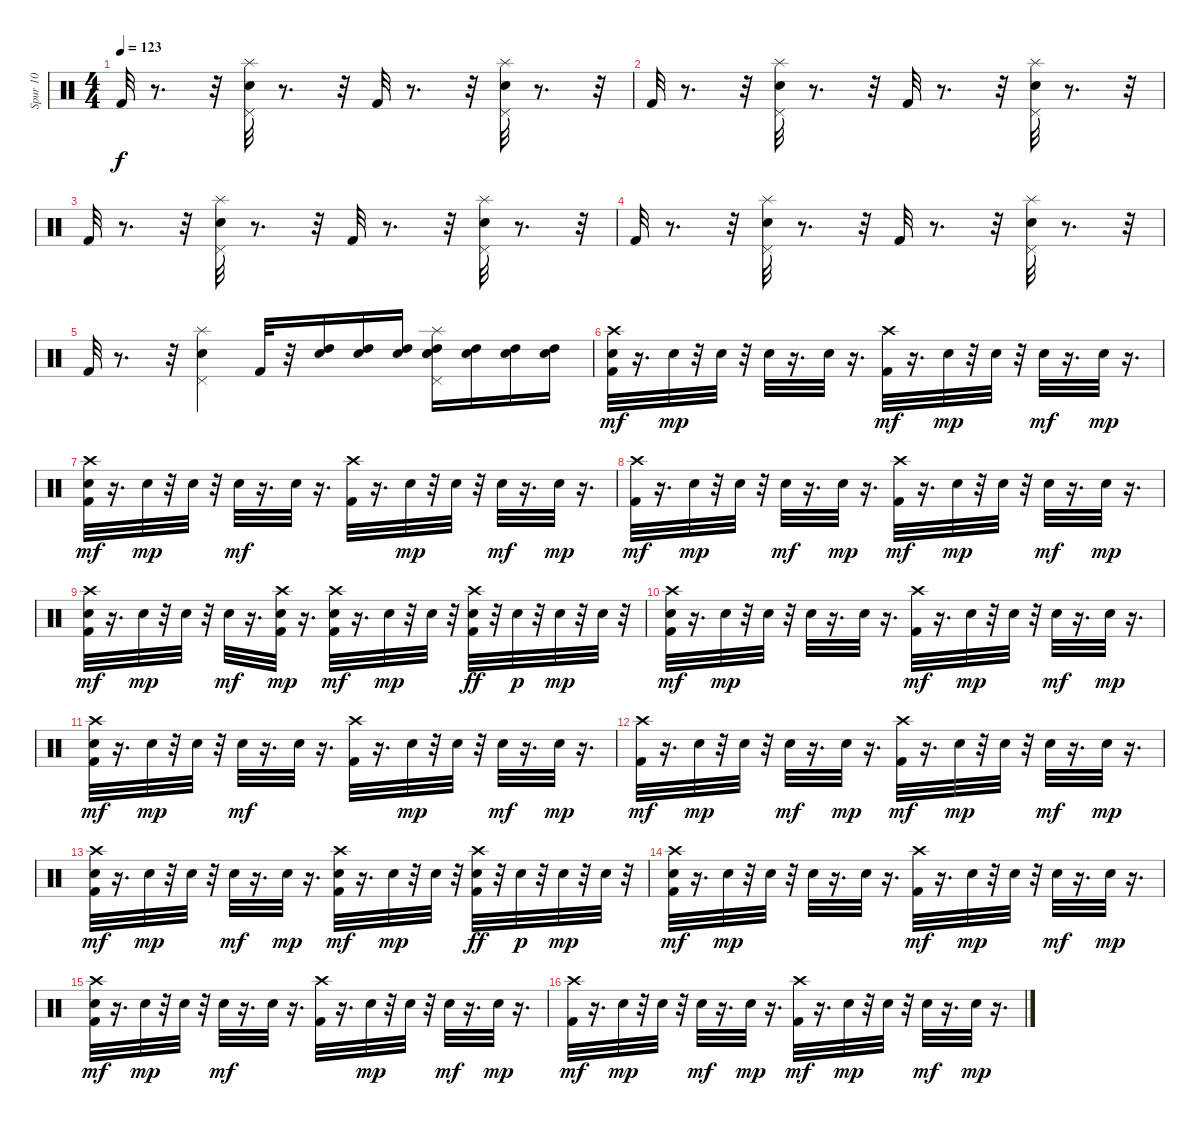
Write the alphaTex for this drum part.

\track ("Spur 10" "Spur 10") {instrument percussion}
\staff {score}
\articulation defaults
\ts (4 4)
\tempo 123
\clef neutral
\ks c "Kick (hit) 2".32{dy f}
r.8{d} r.32 ("Snare (hit) 2" "Pedal Hi-Hat (hit)" "Splash (hit)").32 r.8{d} r.32 "Kick (hit) 2".32 r.8{d} r.32 ("Snare (hit) 2" "Pedal Hi-Hat (hit)" "Splash (hit)").32 r.8{d} r.32 |
"Kick (hit) 2".32 r.8{d} r.32 ("Snare (hit) 2" "Pedal Hi-Hat (hit)" "Splash (hit)").32 r.8{d} r.32 "Kick (hit) 2".32 r.8{d} r.32 ("Snare (hit) 2" "Pedal Hi-Hat (hit)" "Splash (hit)").32 r.8{d} r.32 |
"Kick (hit) 2".32 r.8{d} r.32 ("Snare (hit) 2" "Pedal Hi-Hat (hit)" "Splash (hit)").32 r.8{d} r.32 "Kick (hit) 2".32 r.8{d} r.32 ("Snare (hit) 2" "Pedal Hi-Hat (hit)" "Splash (hit)").32 r.8{d} r.32 |
"Kick (hit) 2".32 r.8{d} r.32 ("Snare (hit) 2" "Pedal Hi-Hat (hit)" "Splash (hit)").32 r.8{d} r.32 "Kick (hit) 2".32 r.8{d} r.32 ("Snare (hit) 2" "Pedal Hi-Hat (hit)" "Splash (hit)").32 r.8{d} r.32 |
"Kick (hit) 2".32 r.8{d} r.32 ("Snare (hit) 2" "Pedal Hi-Hat (hit)" "Splash (hit)").4 "Kick (hit) 2".32 r.32 ("Snare (hit) 2" "High Tom (hit)").16 ("Snare (hit) 2" "High Tom (hit)").16 ("Snare (hit) 2" "High Tom (hit)").16 ("High Tom (hit)" "Snare (hit) 2" "Snare (hit) 2" "Pedal Hi-Hat (hit)" "Splash (hit)").16 ("High Tom (hit)" "Snare (hit) 2").16 ("High Tom (hit)" "Snare (hit) 2").16 ("High Tom (hit)" "Snare (hit) 2").16 |
("Kick (hit) 2" "Crash high (hit)" "Snare (hit) 2").32{dy mf} r.16{d} "Snare (hit) 2".32{dy mp} r.32 "Snare (hit) 2".32 r.32 "Snare (hit) 2".32 r.16{d} "Snare (hit) 2".32 r.16{d} ("Kick (hit) 2" "Crash high (hit)").32{dy mf} r.16{d} "Snare (hit) 2".32{dy mp} r.32 "Snare (hit) 2".32 r.32 "Snare (hit) 2".32{dy mf} r.16{d} "Snare (hit) 2".32{dy mp} r.16{d} |
("Kick (hit) 2" "Crash high (hit)" "Snare (hit) 2").32{dy mf} r.16{d} "Snare (hit) 2".32{dy mp} r.32 "Snare (hit) 2".32 r.32 "Snare (hit) 2".32{dy mf} r.16{d} "Snare (hit) 2".32 r.16{d} ("Kick (hit) 2" "Crash high (hit)").32 r.16{d} "Snare (hit) 2".32{dy mp} r.32 "Snare (hit) 2".32 r.32 "Snare (hit) 2".32{dy mf} r.16{d} "Snare (hit) 2".32{dy mp} r.16{d} |
("Kick (hit) 2" "Crash high (hit)").32{dy mf} r.16{d} "Snare (hit) 2".32{dy mp} r.32 "Snare (hit) 2".32 r.32 "Snare (hit) 2".32{dy mf} r.16{d} "Snare (hit) 2".32{dy mp} r.16{d} ("Kick (hit) 2" "Crash high (hit)").32{dy mf} r.16{d} "Snare (hit) 2".32{dy mp} r.32 "Snare (hit) 2".32 r.32 "Snare (hit) 2".32{dy mf} r.16{d} "Snare (hit) 2".32{dy mp} r.16{d} |
("Kick (hit) 2" "Crash high (hit)" "Snare (hit) 2").32{dy mf} r.16{d} "Snare (hit) 2".32{dy mp} r.32 "Snare (hit) 2".32 r.32 "Snare (hit) 2".32{dy mf} r.16{d} ("Snare (hit) 2" "Kick (hit) 2" "Crash high (hit)").32{dy mp} r.16{d} ("Kick (hit) 2" "Snare (hit) 2" "Crash high (hit)").32{dy mf} r.16{d} "Snare (hit) 2".32{dy mp} r.32 "Snare (hit) 2".32 r.32 ("Snare (hit) 2" "Kick (hit) 2" "Crash high (hit)").32{dy ff} r.32 "Snare (hit) 2".32{dy p} r.32 "Snare (hit) 2".32{dy mp} r.32 "Snare (hit) 2".32 r.32 |
("Kick (hit) 2" "Crash high (hit)" "Snare (hit) 2").32{dy mf} r.16{d} "Snare (hit) 2".32{dy mp} r.32 "Snare (hit) 2".32 r.32 "Snare (hit) 2".32 r.16{d} "Snare (hit) 2".32 r.16{d} ("Kick (hit) 2" "Crash high (hit)").32{dy mf} r.16{d} "Snare (hit) 2".32{dy mp} r.32 "Snare (hit) 2".32 r.32 "Snare (hit) 2".32{dy mf} r.16{d} "Snare (hit) 2".32{dy mp} r.16{d} |
("Kick (hit) 2" "Crash high (hit)" "Snare (hit) 2").32{dy mf} r.16{d} "Snare (hit) 2".32{dy mp} r.32 "Snare (hit) 2".32 r.32 "Snare (hit) 2".32{dy mf} r.16{d} "Snare (hit) 2".32 r.16{d} ("Kick (hit) 2" "Crash high (hit)").32 r.16{d} "Snare (hit) 2".32{dy mp} r.32 "Snare (hit) 2".32 r.32 "Snare (hit) 2".32{dy mf} r.16{d} "Snare (hit) 2".32{dy mp} r.16{d} |
("Kick (hit) 2" "Crash high (hit)").32{dy mf} r.16{d} "Snare (hit) 2".32{dy mp} r.32 "Snare (hit) 2".32 r.32 "Snare (hit) 2".32{dy mf} r.16{d} "Snare (hit) 2".32{dy mp} r.16{d} ("Kick (hit) 2" "Crash high (hit)").32{dy mf} r.16{d} "Snare (hit) 2".32{dy mp} r.32 "Snare (hit) 2".32 r.32 "Snare (hit) 2".32{dy mf} r.16{d} "Snare (hit) 2".32{dy mp} r.16{d} |
("Kick (hit) 2" "Crash high (hit)" "Snare (hit) 2").32{dy mf} r.16{d} "Snare (hit) 2".32{dy mp} r.32 "Snare (hit) 2".32 r.32 "Snare (hit) 2".32{dy mf} r.16{d} "Snare (hit) 2".32{dy mp} r.16{d} ("Kick (hit) 2" "Snare (hit) 2" "Crash high (hit)").32{dy mf} r.16{d} "Snare (hit) 2".32{dy mp} r.32 "Snare (hit) 2".32 r.32 ("Snare (hit) 2" "Kick (hit) 2" "Crash high (hit)").32{dy ff} r.32 "Snare (hit) 2".32{dy p} r.32 "Snare (hit) 2".32{dy mp} r.32 "Snare (hit) 2".32 r.32 |
("Kick (hit) 2" "Crash high (hit)" "Snare (hit) 2").32{dy mf} r.16{d} "Snare (hit) 2".32{dy mp} r.32 "Snare (hit) 2".32 r.32 "Snare (hit) 2".32 r.16{d} "Snare (hit) 2".32 r.16{d} ("Kick (hit) 2" "Crash high (hit)").32{dy mf} r.16{d} "Snare (hit) 2".32{dy mp} r.32 "Snare (hit) 2".32 r.32 "Snare (hit) 2".32{dy mf} r.16{d} "Snare (hit) 2".32{dy mp} r.16{d} |
("Kick (hit) 2" "Crash high (hit)" "Snare (hit) 2").32{dy mf} r.16{d} "Snare (hit) 2".32{dy mp} r.32 "Snare (hit) 2".32 r.32 "Snare (hit) 2".32{dy mf} r.16{d} "Snare (hit) 2".32 r.16{d} ("Kick (hit) 2" "Crash high (hit)").32 r.16{d} "Snare (hit) 2".32{dy mp} r.32 "Snare (hit) 2".32 r.32 "Snare (hit) 2".32{dy mf} r.16{d} "Snare (hit) 2".32{dy mp} r.16{d} |
("Kick (hit) 2" "Crash high (hit)").32{dy mf} r.16{d} "Snare (hit) 2".32{dy mp} r.32 "Snare (hit) 2".32 r.32 "Snare (hit) 2".32{dy mf} r.16{d} "Snare (hit) 2".32{dy mp} r.16{d} ("Kick (hit) 2" "Crash high (hit)").32{dy mf} r.16{d} "Snare (hit) 2".32{dy mp} r.32 "Snare (hit) 2".32 r.32 "Snare (hit) 2".32{dy mf} r.16{d} "Snare (hit) 2".32{dy mp} r.16{d}
